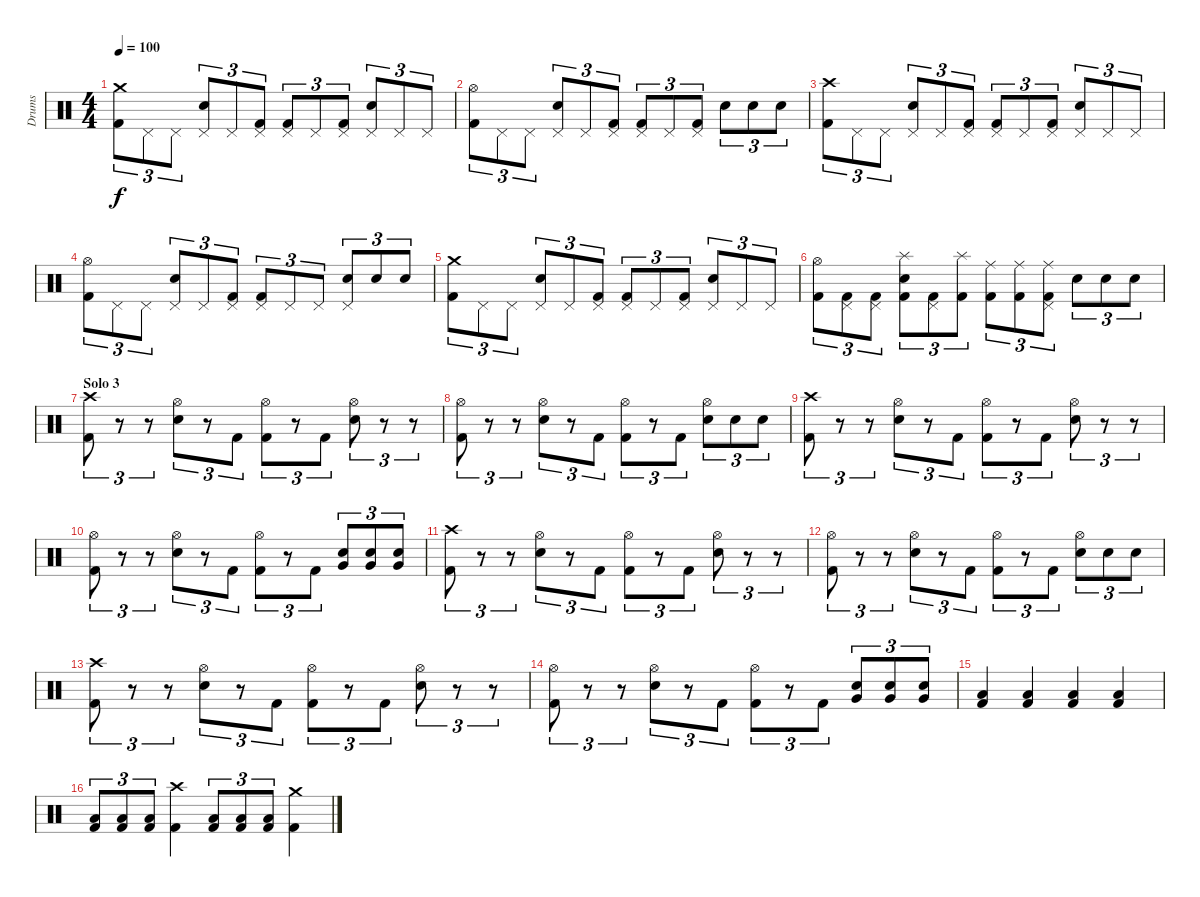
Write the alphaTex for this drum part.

\track ("Drums" "Drums") {instrument percussion}
\staff {score}
\articulation defaults
\ts (4 4)
\tempo 100
\clef neutral
\ks c
("Crash medium (hit)" "Kick (hit) 2").8{tu (3 2) dy f} "Pedal Hi-Hat (hit)".8{tu (3 2)} "Pedal Hi-Hat (hit)".8{tu (3 2)} ("Pedal Hi-Hat (hit)" "Electric Snare (hit)").8{tu (3 2)} "Pedal Hi-Hat (hit)".8{tu (3 2)} ("Pedal Hi-Hat (hit)" "Kick (hit) 2").8{tu (3 2)} ("Pedal Hi-Hat (hit)" "Kick (hit) 2").8{tu (3 2)} "Pedal Hi-Hat (hit)".8{tu (3 2)} ("Pedal Hi-Hat (hit)" "Kick (hit) 2").8{tu (3 2)} ("Pedal Hi-Hat (hit)" "Electric Snare (hit)").8{tu (3 2)} "Pedal Hi-Hat (hit)".8{tu (3 2)} "Pedal Hi-Hat (hit)".8{tu (3 2)} |
("Hi-Hat (open)" "Kick (hit) 2").8{tu (3 2)} "Pedal Hi-Hat (hit)".8{tu (3 2)} "Pedal Hi-Hat (hit)".8{tu (3 2)} ("Pedal Hi-Hat (hit)" "Electric Snare (hit)").8{tu (3 2)} "Pedal Hi-Hat (hit)".8{tu (3 2)} ("Pedal Hi-Hat (hit)" "Kick (hit) 2").8{tu (3 2)} ("Pedal Hi-Hat (hit)" "Kick (hit) 2").8{tu (3 2)} "Pedal Hi-Hat (hit)".8{tu (3 2)} ("Pedal Hi-Hat (hit)" "Kick (hit) 2").8{tu (3 2)} "Snare (hit) 2".8{tu (3 2)} "Snare (hit) 2".8{tu (3 2)} "Snare (hit) 2".8{tu (3 2)} |
("Crash high (hit)" "Kick (hit) 2").8{tu (3 2)} "Pedal Hi-Hat (hit)".8{tu (3 2)} "Pedal Hi-Hat (hit)".8{tu (3 2)} ("Pedal Hi-Hat (hit)" "Electric Snare (hit)").8{tu (3 2)} "Pedal Hi-Hat (hit)".8{tu (3 2)} ("Pedal Hi-Hat (hit)" "Kick (hit) 2").8{tu (3 2)} ("Pedal Hi-Hat (hit)" "Kick (hit) 2").8{tu (3 2)} "Pedal Hi-Hat (hit)".8{tu (3 2)} ("Pedal Hi-Hat (hit)" "Kick (hit) 2").8{tu (3 2)} ("Pedal Hi-Hat (hit)" "Electric Snare (hit)").8{tu (3 2)} "Pedal Hi-Hat (hit)".8{tu (3 2)} "Pedal Hi-Hat (hit)".8{tu (3 2)} |
("Hi-Hat (open)" "Kick (hit) 2").8{tu (3 2)} "Pedal Hi-Hat (hit)".8{tu (3 2)} "Pedal Hi-Hat (hit)".8{tu (3 2)} ("Pedal Hi-Hat (hit)" "Electric Snare (hit)").8{tu (3 2)} "Pedal Hi-Hat (hit)".8{tu (3 2)} ("Pedal Hi-Hat (hit)" "Kick (hit) 2").8{tu (3 2)} ("Pedal Hi-Hat (hit)" "Kick (hit) 2").8{tu (3 2)} "Pedal Hi-Hat (hit)".8{tu (3 2)} "Pedal Hi-Hat (hit)".8{tu (3 2)} ("Pedal Hi-Hat (hit)" "Electric Snare (hit)").8{tu (3 2)} "Snare (hit) 2".8{tu (3 2)} "Snare (hit) 2".8{tu (3 2)} |
("Crash medium (hit)" "Kick (hit) 2").8{tu (3 2)} "Pedal Hi-Hat (hit)".8{tu (3 2)} "Pedal Hi-Hat (hit)".8{tu (3 2)} ("Pedal Hi-Hat (hit)" "Electric Snare (hit)").8{tu (3 2)} "Pedal Hi-Hat (hit)".8{tu (3 2)} ("Pedal Hi-Hat (hit)" "Kick (hit) 2").8{tu (3 2)} ("Pedal Hi-Hat (hit)" "Kick (hit) 2").8{tu (3 2)} "Pedal Hi-Hat (hit)".8{tu (3 2)} ("Pedal Hi-Hat (hit)" "Kick (hit) 2").8{tu (3 2)} ("Pedal Hi-Hat (hit)" "Electric Snare (hit)").8{tu (3 2)} "Pedal Hi-Hat (hit)".8{tu (3 2)} "Pedal Hi-Hat (hit)".8{tu (3 2)} |
("Hi-Hat (open)" "Kick (hit) 2").8{tu (3 2)} ("Pedal Hi-Hat (hit)" "Kick (hit) 2").8{tu (3 2)} ("Pedal Hi-Hat (hit)" "Kick (hit) 2").8{tu (3 2)} ("Splash (hit)" "Electric Snare (hit)" "Kick (hit) 2").8{tu (3 2)} ("Pedal Hi-Hat (hit)" "Kick (hit) 2").8{tu (3 2)} ("Splash (hit)" "Kick (hit) 2").8{tu (3 2)} ("Ride (middle)" "Kick (hit) 2").8{tu (3 2)} ("Ride (middle)" "Kick (hit) 2").8{tu (3 2)} ("Ride (middle)" "Pedal Hi-Hat (hit)" "Kick (hit) 2").8{tu (3 2)} "Snare (hit) 2".8{tu (3 2)} "Snare (hit) 2".8{tu (3 2)} "Snare (hit) 2".8{tu (3 2)} |
\section ("" "Solo 3")
("Crash high (hit)" "Kick (hit) 2").8{tu (3 2)} r.8{tu (3 2)} r.8{tu (3 2)} ("Hi-Hat (open)" "Electric Snare (hit)").8{tu (3 2)} r.8{tu (3 2)} "Kick (hit) 2".8{tu (3 2)} ("Hi-Hat (open)" "Kick (hit) 2").8{tu (3 2)} r.8{tu (3 2)} "Kick (hit) 2".8{tu (3 2)} ("Hi-Hat (open)" "Electric Snare (hit)").8{tu (3 2)} r.8{tu (3 2)} r.8{tu (3 2)} |
("Hi-Hat (open)" "Kick (hit) 2").8{tu (3 2)} r.8{tu (3 2)} r.8{tu (3 2)} ("Hi-Hat (open)" "Electric Snare (hit)").8{tu (3 2)} r.8{tu (3 2)} "Kick (hit) 2".8{tu (3 2)} ("Hi-Hat (open)" "Kick (hit) 2").8{tu (3 2)} r.8{tu (3 2)} "Kick (hit) 2".8{tu (3 2)} ("Hi-Hat (open)" "Snare (hit) 2").8{tu (3 2)} "Snare (hit) 2".8{tu (3 2)} "Snare (hit) 2".8{tu (3 2)} |
("Crash high (hit)" "Kick (hit) 2").8{tu (3 2)} r.8{tu (3 2)} r.8{tu (3 2)} ("Hi-Hat (open)" "Electric Snare (hit)").8{tu (3 2)} r.8{tu (3 2)} "Kick (hit) 2".8{tu (3 2)} ("Hi-Hat (open)" "Kick (hit) 2").8{tu (3 2)} r.8{tu (3 2)} "Kick (hit) 2".8{tu (3 2)} ("Hi-Hat (open)" "Electric Snare (hit)").8{tu (3 2)} r.8{tu (3 2)} r.8{tu (3 2)} |
("Hi-Hat (open)" "Kick (hit) 2").8{tu (3 2)} r.8{tu (3 2)} r.8{tu (3 2)} ("Hi-Hat (open)" "Electric Snare (hit)").8{tu (3 2)} r.8{tu (3 2)} "Kick (hit) 2".8{tu (3 2)} ("Hi-Hat (open)" "Kick (hit) 2").8{tu (3 2)} r.8{tu (3 2)} "Kick (hit) 2".8{tu (3 2)} ("Very Low Tom (hit)" "Snare (hit) 2").8{tu (3 2)} ("Very Low Tom (hit)" "Snare (hit) 2").8{tu (3 2)} ("Very Low Tom (hit)" "Snare (hit) 2").8{tu (3 2)} |
("Crash high (hit)" "Kick (hit) 2").8{tu (3 2)} r.8{tu (3 2)} r.8{tu (3 2)} ("Hi-Hat (open)" "Electric Snare (hit)").8{tu (3 2)} r.8{tu (3 2)} "Kick (hit) 2".8{tu (3 2)} ("Hi-Hat (open)" "Kick (hit) 2").8{tu (3 2)} r.8{tu (3 2)} "Kick (hit) 2".8{tu (3 2)} ("Hi-Hat (open)" "Electric Snare (hit)").8{tu (3 2)} r.8{tu (3 2)} r.8{tu (3 2)} |
("Hi-Hat (open)" "Kick (hit) 2").8{tu (3 2)} r.8{tu (3 2)} r.8{tu (3 2)} ("Hi-Hat (open)" "Electric Snare (hit)").8{tu (3 2)} r.8{tu (3 2)} "Kick (hit) 2".8{tu (3 2)} ("Hi-Hat (open)" "Kick (hit) 2").8{tu (3 2)} r.8{tu (3 2)} "Kick (hit) 2".8{tu (3 2)} ("Hi-Hat (open)" "Snare (hit) 2").8{tu (3 2)} "Snare (hit) 2".8{tu (3 2)} "Snare (hit) 2".8{tu (3 2)} |
("Crash high (hit)" "Kick (hit) 2").8{tu (3 2)} r.8{tu (3 2)} r.8{tu (3 2)} ("Hi-Hat (open)" "Electric Snare (hit)").8{tu (3 2)} r.8{tu (3 2)} "Kick (hit) 2".8{tu (3 2)} ("Hi-Hat (open)" "Kick (hit) 2").8{tu (3 2)} r.8{tu (3 2)} "Kick (hit) 2".8{tu (3 2)} ("Hi-Hat (open)" "Electric Snare (hit)").8{tu (3 2)} r.8{tu (3 2)} r.8{tu (3 2)} |
("Hi-Hat (open)" "Kick (hit) 2").8{tu (3 2)} r.8{tu (3 2)} r.8{tu (3 2)} ("Hi-Hat (open)" "Electric Snare (hit)").8{tu (3 2)} r.8{tu (3 2)} "Kick (hit) 2".8{tu (3 2)} ("Hi-Hat (open)" "Kick (hit) 2").8{tu (3 2)} r.8{tu (3 2)} "Kick (hit) 2".8{tu (3 2)} ("Very Low Tom (hit)" "Snare (hit) 2").8{tu (3 2)} ("Very Low Tom (hit)" "Snare (hit) 2").8{tu (3 2)} ("Very Low Tom (hit)" "Snare (hit) 2").8{tu (3 2)} |
("Low Tom (hit)" "Kick (hit) 2").4 ("Low Tom (hit)" "Kick (hit) 2").4 ("Low Tom (hit)" "Kick (hit) 2").4 ("Low Tom (hit)" "Kick (hit) 2").4 |
("Low Tom (hit)" "Kick (hit) 2").8{tu (3 2)} ("Low Tom (hit)" "Kick (hit) 2").8{tu (3 2)} ("Low Tom (hit)" "Kick (hit) 2").8{tu (3 2)} ("Crash high (hit)" "Kick (hit) 2").4 ("Low Tom (hit)" "Kick (hit) 2").8{tu (3 2)} ("Low Tom (hit)" "Kick (hit) 2").8{tu (3 2)} ("Low Tom (hit)" "Kick (hit) 2").8{tu (3 2)} ("Crash medium (hit)" "Kick (hit) 2").4
